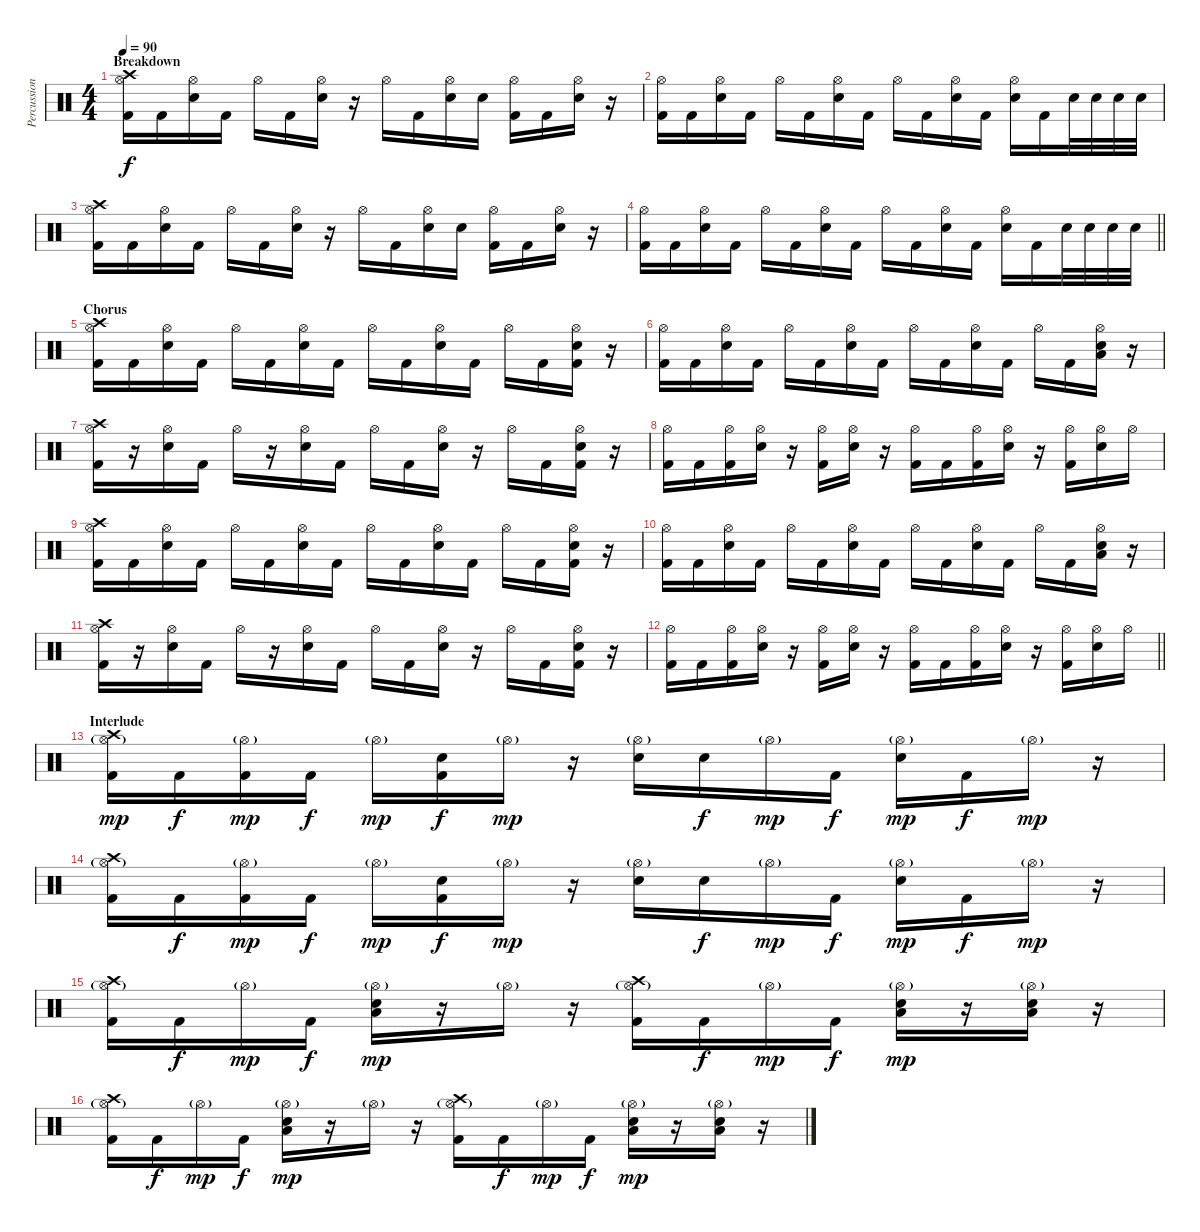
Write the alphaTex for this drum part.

\track ("Percussion" "Percussion") {instrument percussion}
\staff {score}
\articulation defaults
\ts (4 4)
\section ("" "Breakdown")
\tempo 90
\clef neutral
\ks c
("Crash high (hit)" "Hi-Hat (open)" "Kick (hit) 2").16{dy f} "Kick (hit) 2".16 ("Hi-Hat (open)" "Electric Snare (hit)").16 "Kick (hit) 2".16 "Hi-Hat (open)".16 "Kick (hit) 2".16 ("Hi-Hat (open)" "Electric Snare (hit)").16 r.16 "Hi-Hat (open)".16 "Kick (hit) 2".16 ("Hi-Hat (open)" "Electric Snare (hit)").16 "Electric Snare (hit)".16 ("Hi-Hat (open)" "Kick (hit) 2").16 "Kick (hit) 2".16 ("Hi-Hat (open)" "Electric Snare (hit)").16 r.16 |
("Hi-Hat (open)" "Kick (hit) 2").16 "Kick (hit) 2".16 ("Hi-Hat (open)" "Electric Snare (hit)").16 "Kick (hit) 2".16 "Hi-Hat (open)".16 "Kick (hit) 2".16 ("Hi-Hat (open)" "Electric Snare (hit)").16 "Kick (hit) 2".16 "Hi-Hat (open)".16 "Kick (hit) 2".16 ("Hi-Hat (open)" "Electric Snare (hit)").16 "Kick (hit) 2".16 ("Hi-Hat (open)" "Electric Snare (hit)").16 "Kick (hit) 2".16 "Electric Snare (hit)".32 "Electric Snare (hit)".32 "Electric Snare (hit)".32 "Electric Snare (hit)".32 |
("Crash high (hit)" "Hi-Hat (open)" "Kick (hit) 2").16 "Kick (hit) 2".16 ("Hi-Hat (open)" "Electric Snare (hit)").16 "Kick (hit) 2".16 "Hi-Hat (open)".16 "Kick (hit) 2".16 ("Hi-Hat (open)" "Electric Snare (hit)").16 r.16 "Hi-Hat (open)".16 "Kick (hit) 2".16 ("Hi-Hat (open)" "Electric Snare (hit)").16 "Electric Snare (hit)".16 ("Hi-Hat (open)" "Kick (hit) 2").16 "Kick (hit) 2".16 ("Hi-Hat (open)" "Electric Snare (hit)").16 r.16 |
\barLineRight lightlight
("Hi-Hat (open)" "Kick (hit) 2").16 "Kick (hit) 2".16 ("Hi-Hat (open)" "Electric Snare (hit)").16 "Kick (hit) 2".16 "Hi-Hat (open)".16 "Kick (hit) 2".16 ("Hi-Hat (open)" "Electric Snare (hit)").16 "Kick (hit) 2".16 "Hi-Hat (open)".16 "Kick (hit) 2".16 ("Hi-Hat (open)" "Electric Snare (hit)").16 "Kick (hit) 2".16 ("Hi-Hat (open)" "Electric Snare (hit)").16 "Kick (hit) 2".16 "Electric Snare (hit)".32 "Electric Snare (hit)".32 "Electric Snare (hit)".32 "Electric Snare (hit)".32 |
\section ("" "Chorus")
("Crash high (hit)" "Hi-Hat (open)" "Kick (hit) 2").16 "Kick (hit) 2".16 ("Hi-Hat (open)" "Electric Snare (hit)").16 "Kick (hit) 2".16 "Hi-Hat (open)".16 "Kick (hit) 2".16 ("Hi-Hat (open)" "Electric Snare (hit)").16 "Kick (hit) 2".16 "Hi-Hat (open)".16 "Kick (hit) 2".16 ("Hi-Hat (open)" "Electric Snare (hit)").16 "Kick (hit) 2".16 "Hi-Hat (open)".16 "Kick (hit) 2".16 ("Hi-Hat (open)" "Electric Snare (hit)" "Kick (hit) 2").16 r.16 |
("Hi-Hat (open)" "Kick (hit) 2").16 "Kick (hit) 2".16 ("Hi-Hat (open)" "Electric Snare (hit)").16 "Kick (hit) 2".16 "Hi-Hat (open)".16 "Kick (hit) 2".16 ("Hi-Hat (open)" "Electric Snare (hit)").16 "Kick (hit) 2".16 "Hi-Hat (open)".16 "Kick (hit) 2".16 ("Hi-Hat (open)" "Electric Snare (hit)").16 "Kick (hit) 2".16 "Hi-Hat (open)".16 "Kick (hit) 2".16 ("Hi-Hat (open)" "Electric Snare (hit)" "Low Floor Tom (hit)").16 r.16 |
("Crash high (hit)" "Hi-Hat (open)" "Kick (hit) 2").16 r.16 ("Hi-Hat (open)" "Electric Snare (hit)").16 "Kick (hit) 2".16 "Hi-Hat (open)".16 r.16 ("Hi-Hat (open)" "Electric Snare (hit)").16 "Kick (hit) 2".16 "Hi-Hat (open)".16 "Kick (hit) 2".16 ("Hi-Hat (open)" "Electric Snare (hit)").16 r.16 "Hi-Hat (open)".16 "Kick (hit) 2".16 ("Hi-Hat (open)" "Electric Snare (hit)" "Kick (hit) 2").16 r.16 |
("Hi-Hat (open)" "Kick (hit) 2").16 "Kick (hit) 2".16 ("Hi-Hat (open)" "Kick (hit) 2").16 ("Hi-Hat (open)" "Electric Snare (hit)").16 r.16 ("Hi-Hat (open)" "Kick (hit) 2").16 ("Hi-Hat (open)" "Electric Snare (hit)").16 r.16 ("Hi-Hat (open)" "Kick (hit) 2").16 "Kick (hit) 2".16 ("Hi-Hat (open)" "Kick (hit) 2").16 ("Hi-Hat (open)" "Electric Snare (hit)").16 r.16 ("Hi-Hat (open)" "Kick (hit) 2").16 ("Hi-Hat (open)" "Electric Snare (hit)").16 "Hi-Hat (open)".16 |
("Crash high (hit)" "Hi-Hat (open)" "Kick (hit) 2").16 "Kick (hit) 2".16 ("Hi-Hat (open)" "Electric Snare (hit)").16 "Kick (hit) 2".16 "Hi-Hat (open)".16 "Kick (hit) 2".16 ("Hi-Hat (open)" "Electric Snare (hit)").16 "Kick (hit) 2".16 "Hi-Hat (open)".16 "Kick (hit) 2".16 ("Hi-Hat (open)" "Electric Snare (hit)").16 "Kick (hit) 2".16 "Hi-Hat (open)".16 "Kick (hit) 2".16 ("Hi-Hat (open)" "Electric Snare (hit)" "Kick (hit) 2").16 r.16 |
("Hi-Hat (open)" "Kick (hit) 2").16 "Kick (hit) 2".16 ("Hi-Hat (open)" "Electric Snare (hit)").16 "Kick (hit) 2".16 "Hi-Hat (open)".16 "Kick (hit) 2".16 ("Hi-Hat (open)" "Electric Snare (hit)").16 "Kick (hit) 2".16 "Hi-Hat (open)".16 "Kick (hit) 2".16 ("Hi-Hat (open)" "Electric Snare (hit)").16 "Kick (hit) 2".16 "Hi-Hat (open)".16 "Kick (hit) 2".16 ("Hi-Hat (open)" "Electric Snare (hit)" "Low Floor Tom (hit)").16 r.16 |
("Crash high (hit)" "Hi-Hat (open)" "Kick (hit) 2").16 r.16 ("Hi-Hat (open)" "Electric Snare (hit)").16 "Kick (hit) 2".16 "Hi-Hat (open)".16 r.16 ("Hi-Hat (open)" "Electric Snare (hit)").16 "Kick (hit) 2".16 "Hi-Hat (open)".16 "Kick (hit) 2".16 ("Hi-Hat (open)" "Electric Snare (hit)").16 r.16 "Hi-Hat (open)".16 "Kick (hit) 2".16 ("Hi-Hat (open)" "Electric Snare (hit)" "Kick (hit) 2").16 r.16 |
\barLineRight lightlight
("Hi-Hat (open)" "Kick (hit) 2").16 "Kick (hit) 2".16 ("Hi-Hat (open)" "Kick (hit) 2").16 ("Hi-Hat (open)" "Electric Snare (hit)").16 r.16 ("Hi-Hat (open)" "Kick (hit) 2").16 ("Hi-Hat (open)" "Electric Snare (hit)").16 r.16 ("Hi-Hat (open)" "Kick (hit) 2").16 "Kick (hit) 2".16 ("Hi-Hat (open)" "Kick (hit) 2").16 ("Hi-Hat (open)" "Electric Snare (hit)").16 r.16 ("Hi-Hat (open)" "Kick (hit) 2").16 ("Hi-Hat (open)" "Electric Snare (hit)").16 "Hi-Hat (open)".16 |
\section ("" "Interlude")
("Crash high (hit)" "Hi-Hat (open)"{g} "Kick (hit) 2").16{dy mp} "Kick (hit) 2".16{dy f} ("Hi-Hat (open)"{g} "Kick (hit) 2").16{dy mp} "Kick (hit) 2".16{dy f} "Hi-Hat (open)"{g}.16{dy mp} ("Electric Snare (hit)" "Kick (hit) 2").16{dy f} "Hi-Hat (open)"{g}.16{dy mp} r.16 ("Hi-Hat (open)"{g} "Electric Snare (hit)").16 "Electric Snare (hit)".16{dy f} "Hi-Hat (open)"{g}.16{dy mp} "Kick (hit) 2".16{dy f} ("Hi-Hat (open)"{g} "Electric Snare (hit)").16{dy mp} "Kick (hit) 2".16{dy f} "Hi-Hat (open)"{g}.16{dy mp} r.16 |
("Crash high (hit)" "Hi-Hat (open)"{g} "Kick (hit) 2").16 "Kick (hit) 2".16{dy f} ("Hi-Hat (open)"{g} "Kick (hit) 2").16{dy mp} "Kick (hit) 2".16{dy f} "Hi-Hat (open)"{g}.16{dy mp} ("Electric Snare (hit)" "Kick (hit) 2").16{dy f} "Hi-Hat (open)"{g}.16{dy mp} r.16 ("Hi-Hat (open)"{g} "Electric Snare (hit)").16 "Electric Snare (hit)".16{dy f} "Hi-Hat (open)"{g}.16{dy mp} "Kick (hit) 2".16{dy f} ("Hi-Hat (open)"{g} "Electric Snare (hit)").16{dy mp} "Kick (hit) 2".16{dy f} "Hi-Hat (open)"{g}.16{dy mp} r.16 |
("Crash high (hit)" "Hi-Hat (open)"{g} "Kick (hit) 2").16 "Kick (hit) 2".16{dy f} "Hi-Hat (open)"{g}.16{dy mp} "Kick (hit) 2".16{dy f} ("Hi-Hat (open)"{g} "Electric Snare (hit)" "Low Floor Tom (hit)").16{dy mp} r.16 "Hi-Hat (open)"{g}.16 r.16 ("Crash high (hit)" "Hi-Hat (open)"{g} "Kick (hit) 2").16 "Kick (hit) 2".16{dy f} "Hi-Hat (open)"{g}.16{dy mp} "Kick (hit) 2".16{dy f} ("Hi-Hat (open)"{g} "Electric Snare (hit)" "Low Floor Tom (hit)").16{dy mp} r.16 ("Hi-Hat (open)"{g} "Electric Snare (hit)" "Low Floor Tom (hit)").16 r.16 |
("Crash high (hit)" "Hi-Hat (open)"{g} "Kick (hit) 2").16 "Kick (hit) 2".16{dy f} "Hi-Hat (open)"{g}.16{dy mp} "Kick (hit) 2".16{dy f} ("Hi-Hat (open)"{g} "Electric Snare (hit)" "Low Floor Tom (hit)").16{dy mp} r.16 "Hi-Hat (open)"{g}.16 r.16 ("Crash high (hit)" "Hi-Hat (open)"{g} "Kick (hit) 2").16 "Kick (hit) 2".16{dy f} "Hi-Hat (open)"{g}.16{dy mp} "Kick (hit) 2".16{dy f} ("Hi-Hat (open)"{g} "Electric Snare (hit)" "Low Floor Tom (hit)").16{dy mp} r.16 ("Hi-Hat (open)"{g} "Electric Snare (hit)" "Low Floor Tom (hit)").16 r.16
